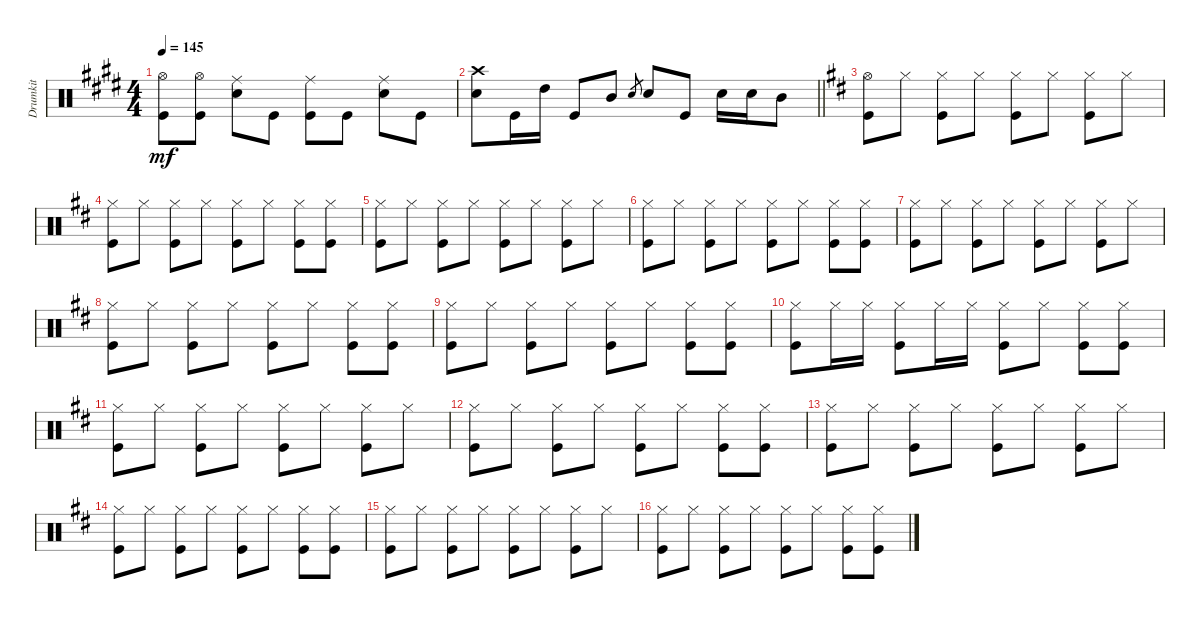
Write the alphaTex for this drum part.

\track ("Drumkit" "Drumkit") {instrument percussion}
\staff {score}
\articulation defaults
\ts (4 4)
\tempo 145
\clef neutral
\ks e
("Hi-Hat (open)" "Kick (hit)").8{dy mf} ("Kick (hit)" "Hi-Hat (open)").8 ("Snare (hit) 2" "Ride (middle)").8 "Kick (hit)".8 ("Kick (hit)" "Ride (middle)").8 "Kick (hit)".8 ("Snare (hit) 2" "Ride (middle)").8 "Kick (hit)".8 |
\barLineRight lightlight
("Snare (hit) 2" "Crash high (hit)").8 "Kick (hit)".16 "High Tom (hit)".16 "Kick (hit)".8 "Mid Tom (hit)".8 "Snare (hit)".8{gr} "Snare (hit) 2".8 "Kick (hit)".8 "Snare (hit) 2".16 "Snare (hit) 2".16 "Mid Tom (hit)".8 |
\ks d
("Hi-Hat (open)" "Kick (hit)").8 "Hi-Hat (closed)".8 ("Hi-Hat (closed)" "Kick (hit)").8 "Hi-Hat (closed)".8 ("Hi-Hat (closed)" "Kick (hit)").8 "Hi-Hat (closed)".8 ("Hi-Hat (closed)" "Kick (hit)").8 "Hi-Hat (closed)".8 |
("Kick (hit)" "Hi-Hat (closed)").8 "Hi-Hat (closed)".8 ("Hi-Hat (closed)" "Kick (hit)").8 "Hi-Hat (closed)".8 ("Hi-Hat (closed)" "Kick (hit)").8 "Hi-Hat (closed)".8 ("Hi-Hat (closed)" "Kick (hit)").8 ("Hi-Hat (closed)" "Kick (hit)").8 |
("Kick (hit)" "Hi-Hat (closed)").8 "Hi-Hat (closed)".8 ("Hi-Hat (closed)" "Kick (hit)").8 "Hi-Hat (closed)".8 ("Hi-Hat (closed)" "Kick (hit)").8 "Hi-Hat (closed)".8 ("Hi-Hat (closed)" "Kick (hit)").8 "Hi-Hat (closed)".8 |
("Kick (hit)" "Hi-Hat (closed)").8 "Hi-Hat (closed)".8 ("Hi-Hat (closed)" "Kick (hit)").8 "Hi-Hat (closed)".8 ("Hi-Hat (closed)" "Kick (hit)").8 "Hi-Hat (closed)".8 ("Hi-Hat (closed)" "Kick (hit)").8 ("Hi-Hat (closed)" "Kick (hit)").8 |
("Kick (hit)" "Hi-Hat (closed)").8 "Hi-Hat (closed)".8 ("Hi-Hat (closed)" "Kick (hit)").8 "Hi-Hat (closed)".8 ("Hi-Hat (closed)" "Kick (hit)").8 "Hi-Hat (closed)".8 ("Hi-Hat (closed)" "Kick (hit)").8 "Hi-Hat (closed)".8 |
("Kick (hit)" "Hi-Hat (closed)").8 "Hi-Hat (closed)".8 ("Hi-Hat (closed)" "Kick (hit)").8 "Hi-Hat (closed)".8 ("Hi-Hat (closed)" "Kick (hit)").8 "Hi-Hat (closed)".8 ("Hi-Hat (closed)" "Kick (hit)").8 ("Hi-Hat (closed)" "Kick (hit)").8 |
("Kick (hit)" "Hi-Hat (closed)").8 "Hi-Hat (closed)".8 ("Hi-Hat (closed)" "Kick (hit)").8 "Hi-Hat (closed)".8 ("Hi-Hat (closed)" "Kick (hit)").8 "Hi-Hat (closed)".8 ("Hi-Hat (closed)" "Kick (hit)").8 ("Hi-Hat (closed)" "Kick (hit)").8 |
("Kick (hit)" "Hi-Hat (closed)").8 "Hi-Hat (closed)".16 "Hi-Hat (closed)".16 ("Hi-Hat (closed)" "Kick (hit)").8 "Hi-Hat (closed)".16 "Hi-Hat (closed)".16 ("Hi-Hat (closed)" "Kick (hit)").8 "Hi-Hat (closed)".8 ("Hi-Hat (closed)" "Kick (hit)").8 ("Hi-Hat (closed)" "Kick (hit)").8 |
("Kick (hit)" "Hi-Hat (closed)").8 "Hi-Hat (closed)".8 ("Hi-Hat (closed)" "Kick (hit)").8 "Hi-Hat (closed)".8 ("Hi-Hat (closed)" "Kick (hit)").8 "Hi-Hat (closed)".8 ("Hi-Hat (closed)" "Kick (hit)").8 "Hi-Hat (closed)".8 |
("Kick (hit)" "Hi-Hat (closed)").8 "Hi-Hat (closed)".8 ("Hi-Hat (closed)" "Kick (hit)").8 "Hi-Hat (closed)".8 ("Hi-Hat (closed)" "Kick (hit)").8 "Hi-Hat (closed)".8 ("Hi-Hat (closed)" "Kick (hit)").8 ("Hi-Hat (closed)" "Kick (hit)").8 |
("Kick (hit)" "Hi-Hat (closed)").8 "Hi-Hat (closed)".8 ("Hi-Hat (closed)" "Kick (hit)").8 "Hi-Hat (closed)".8 ("Hi-Hat (closed)" "Kick (hit)").8 "Hi-Hat (closed)".8 ("Hi-Hat (closed)" "Kick (hit)").8 "Hi-Hat (closed)".8 |
("Kick (hit)" "Hi-Hat (closed)").8 "Hi-Hat (closed)".8 ("Hi-Hat (closed)" "Kick (hit)").8 "Hi-Hat (closed)".8 ("Hi-Hat (closed)" "Kick (hit)").8 "Hi-Hat (closed)".8 ("Hi-Hat (closed)" "Kick (hit)").8 ("Hi-Hat (closed)" "Kick (hit)").8 |
("Kick (hit)" "Hi-Hat (closed)").8 "Hi-Hat (closed)".8 ("Hi-Hat (closed)" "Kick (hit)").8 "Hi-Hat (closed)".8 ("Hi-Hat (closed)" "Kick (hit)").8 "Hi-Hat (closed)".8 ("Hi-Hat (closed)" "Kick (hit)").8 "Hi-Hat (closed)".8 |
("Kick (hit)" "Hi-Hat (closed)").8 "Hi-Hat (closed)".8 ("Hi-Hat (closed)" "Kick (hit)").8 "Hi-Hat (closed)".8 ("Hi-Hat (closed)" "Kick (hit)").8 "Hi-Hat (closed)".8 ("Hi-Hat (closed)" "Kick (hit)").8 ("Hi-Hat (closed)" "Kick (hit)").8
